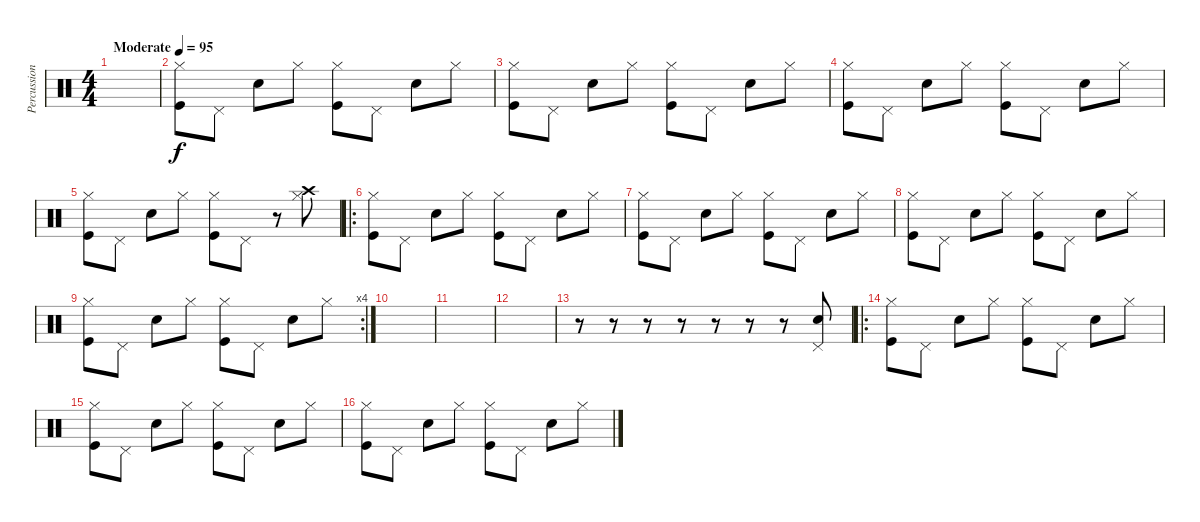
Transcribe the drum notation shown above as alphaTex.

\track ("Percussion" "Percussion") {instrument percussion}
\staff {score}
\articulation defaults
\ts (4 4)
\tempo (95 "Moderate")
\clef neutral
\ks c
|
("Hi-Hat (closed)" "Kick (hit)").8 "Pedal Hi-Hat (hit)".8 "Electric Snare (hit)".8 "Hi-Hat (closed)".8 ("Hi-Hat (closed)" "Kick (hit)").8 "Pedal Hi-Hat (hit)".8 "Electric Snare (hit)".8 "Hi-Hat (closed)".8 |
("Hi-Hat (closed)" "Kick (hit)").8 "Pedal Hi-Hat (hit)".8 "Electric Snare (hit)".8 "Hi-Hat (closed)".8 ("Hi-Hat (closed)" "Kick (hit)").8 "Pedal Hi-Hat (hit)".8 "Electric Snare (hit)".8 "Hi-Hat (closed)".8 |
("Hi-Hat (closed)" "Kick (hit)").8 "Pedal Hi-Hat (hit)".8 "Electric Snare (hit)".8 "Hi-Hat (closed)".8 ("Hi-Hat (closed)" "Kick (hit)").8 "Pedal Hi-Hat (hit)".8 "Electric Snare (hit)".8 "Hi-Hat (closed)".8 |
("Hi-Hat (closed)" "Kick (hit)").8 "Pedal Hi-Hat (hit)".8 "Electric Snare (hit)".8 "Hi-Hat (closed)".8 ("Hi-Hat (closed)" "Kick (hit)").8 "Pedal Hi-Hat (hit)".8 r.8 ("Crash high (hit)" "Hi-Hat (closed)").8 |
\ro
("Hi-Hat (closed)" "Kick (hit)").8 "Pedal Hi-Hat (hit)".8 "Electric Snare (hit)".8 "Hi-Hat (closed)".8 ("Hi-Hat (closed)" "Kick (hit)").8 "Pedal Hi-Hat (hit)".8 "Electric Snare (hit)".8 "Hi-Hat (closed)".8 |
("Hi-Hat (closed)" "Kick (hit)").8 "Pedal Hi-Hat (hit)".8 "Electric Snare (hit)".8 "Hi-Hat (closed)".8 ("Hi-Hat (closed)" "Kick (hit)").8 "Pedal Hi-Hat (hit)".8 "Electric Snare (hit)".8 "Hi-Hat (closed)".8 |
("Hi-Hat (closed)" "Kick (hit)").8 "Pedal Hi-Hat (hit)".8 "Electric Snare (hit)".8 "Hi-Hat (closed)".8 ("Hi-Hat (closed)" "Kick (hit)").8 "Pedal Hi-Hat (hit)".8 "Electric Snare (hit)".8 "Hi-Hat (closed)".8 |
\rc 4
("Hi-Hat (closed)" "Kick (hit)").8 "Pedal Hi-Hat (hit)".8 "Electric Snare (hit)".8 "Hi-Hat (closed)".8 ("Hi-Hat (closed)" "Kick (hit)").8 "Pedal Hi-Hat (hit)".8 "Electric Snare (hit)".8 "Hi-Hat (closed)".8 |
|
|
|
r.8 r.8 r.8 r.8 r.8 r.8 r.8 ("Electric Snare (hit)" "Pedal Hi-Hat (hit)").8 |
\ro
("Hi-Hat (closed)" "Kick (hit)").8 "Pedal Hi-Hat (hit)".8 "Electric Snare (hit)".8 "Hi-Hat (closed)".8 ("Hi-Hat (closed)" "Kick (hit)").8 "Pedal Hi-Hat (hit)".8 "Electric Snare (hit)".8 "Hi-Hat (closed)".8 |
("Hi-Hat (closed)" "Kick (hit)").8 "Pedal Hi-Hat (hit)".8 "Electric Snare (hit)".8 "Hi-Hat (closed)".8 ("Hi-Hat (closed)" "Kick (hit)").8 "Pedal Hi-Hat (hit)".8 "Electric Snare (hit)".8 "Hi-Hat (closed)".8 |
("Hi-Hat (closed)" "Kick (hit)").8 "Pedal Hi-Hat (hit)".8 "Electric Snare (hit)".8 "Hi-Hat (closed)".8 ("Hi-Hat (closed)" "Kick (hit)").8 "Pedal Hi-Hat (hit)".8 "Electric Snare (hit)".8 "Hi-Hat (closed)".8
